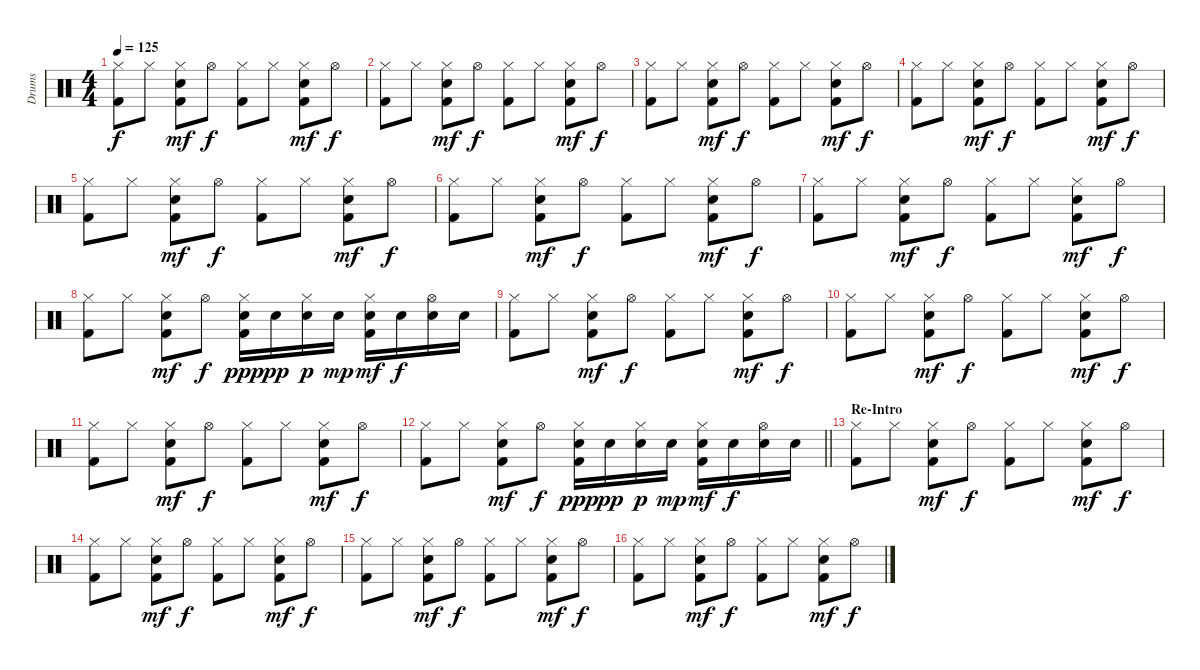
\track ("Drums" "Drums") {instrument percussion}
\staff {score}
\articulation defaults
\ts (4 4)
\tempo 125
\clef neutral
\ks c
("Hi-Hat (closed)" "Kick (hit) 2").8{dy f} "Hi-Hat (closed)".8 ("Hi-Hat (closed)" "Snare (hit) 2" "Kick (hit) 2").8{dy mf} "Hi-Hat (open)".8{dy f} ("Hi-Hat (closed)" "Kick (hit) 2").8 "Hi-Hat (closed)".8 ("Hi-Hat (closed)" "Snare (hit) 2" "Kick (hit) 2").8{dy mf} "Hi-Hat (open)".8{dy f} |
("Hi-Hat (closed)" "Kick (hit) 2").8 "Hi-Hat (closed)".8 ("Hi-Hat (closed)" "Snare (hit) 2" "Kick (hit) 2").8{dy mf} "Hi-Hat (open)".8{dy f} ("Hi-Hat (closed)" "Kick (hit) 2").8 "Hi-Hat (closed)".8 ("Hi-Hat (closed)" "Snare (hit) 2" "Kick (hit) 2").8{dy mf} "Hi-Hat (open)".8{dy f} |
("Hi-Hat (closed)" "Kick (hit) 2").8 "Hi-Hat (closed)".8 ("Hi-Hat (closed)" "Snare (hit) 2" "Kick (hit) 2").8{dy mf} "Hi-Hat (open)".8{dy f} ("Hi-Hat (closed)" "Kick (hit) 2").8 "Hi-Hat (closed)".8 ("Hi-Hat (closed)" "Snare (hit) 2" "Kick (hit) 2").8{dy mf} "Hi-Hat (open)".8{dy f} |
("Hi-Hat (closed)" "Kick (hit) 2").8 "Hi-Hat (closed)".8 ("Hi-Hat (closed)" "Snare (hit) 2" "Kick (hit) 2").8{dy mf} "Hi-Hat (open)".8{dy f} ("Hi-Hat (closed)" "Kick (hit) 2").8 "Hi-Hat (closed)".8 ("Hi-Hat (closed)" "Snare (hit) 2" "Kick (hit) 2").8{dy mf} "Hi-Hat (open)".8{dy f} |
("Hi-Hat (closed)" "Kick (hit) 2").8 "Hi-Hat (closed)".8 ("Hi-Hat (closed)" "Snare (hit) 2" "Kick (hit) 2").8{dy mf} "Hi-Hat (open)".8{dy f} ("Hi-Hat (closed)" "Kick (hit) 2").8 "Hi-Hat (closed)".8 ("Hi-Hat (closed)" "Snare (hit) 2" "Kick (hit) 2").8{dy mf} "Hi-Hat (open)".8{dy f} |
("Hi-Hat (closed)" "Kick (hit) 2").8 "Hi-Hat (closed)".8 ("Hi-Hat (closed)" "Snare (hit) 2" "Kick (hit) 2").8{dy mf} "Hi-Hat (open)".8{dy f} ("Hi-Hat (closed)" "Kick (hit) 2").8 "Hi-Hat (closed)".8 ("Hi-Hat (closed)" "Snare (hit) 2" "Kick (hit) 2").8{dy mf} "Hi-Hat (open)".8{dy f} |
("Hi-Hat (closed)" "Kick (hit) 2").8 "Hi-Hat (closed)".8 ("Hi-Hat (closed)" "Snare (hit) 2" "Kick (hit) 2").8{dy mf} "Hi-Hat (open)".8{dy f} ("Hi-Hat (closed)" "Kick (hit) 2").8 "Hi-Hat (closed)".8 ("Hi-Hat (closed)" "Snare (hit) 2" "Kick (hit) 2").8{dy mf} "Hi-Hat (open)".8{dy f} |
("Hi-Hat (closed)" "Kick (hit) 2").8 "Hi-Hat (closed)".8 ("Hi-Hat (closed)" "Snare (hit) 2" "Kick (hit) 2").8{dy mf} "Hi-Hat (open)".8{dy f} ("Hi-Hat (closed)" "Snare (hit) 2" "Kick (hit) 2").16{dy ppp} "Snare (hit) 2".16{dy pp} ("Hi-Hat (closed)" "Snare (hit) 2").16{dy p} "Snare (hit) 2".16{dy mp} ("Hi-Hat (closed)" "Snare (hit) 2" "Kick (hit) 2").16{dy mf} "Snare (hit) 2".16{dy f} ("Hi-Hat (open)" "Snare (hit) 2").16 "Snare (hit) 2".16 |
("Hi-Hat (closed)" "Kick (hit) 2").8 "Hi-Hat (closed)".8 ("Hi-Hat (closed)" "Snare (hit) 2" "Kick (hit) 2").8{dy mf} "Hi-Hat (open)".8{dy f} ("Hi-Hat (closed)" "Kick (hit) 2").8 "Hi-Hat (closed)".8 ("Hi-Hat (closed)" "Snare (hit) 2" "Kick (hit) 2").8{dy mf} "Hi-Hat (open)".8{dy f} |
("Hi-Hat (closed)" "Kick (hit) 2").8 "Hi-Hat (closed)".8 ("Hi-Hat (closed)" "Snare (hit) 2" "Kick (hit) 2").8{dy mf} "Hi-Hat (open)".8{dy f} ("Hi-Hat (closed)" "Kick (hit) 2").8 "Hi-Hat (closed)".8 ("Hi-Hat (closed)" "Snare (hit) 2" "Kick (hit) 2").8{dy mf} "Hi-Hat (open)".8{dy f} |
("Hi-Hat (closed)" "Kick (hit) 2").8 "Hi-Hat (closed)".8 ("Hi-Hat (closed)" "Snare (hit) 2" "Kick (hit) 2").8{dy mf} "Hi-Hat (open)".8{dy f} ("Hi-Hat (closed)" "Kick (hit) 2").8 "Hi-Hat (closed)".8 ("Hi-Hat (closed)" "Snare (hit) 2" "Kick (hit) 2").8{dy mf} "Hi-Hat (open)".8{dy f} |
\barLineRight lightlight
("Hi-Hat (closed)" "Kick (hit) 2").8 "Hi-Hat (closed)".8 ("Hi-Hat (closed)" "Snare (hit) 2" "Kick (hit) 2").8{dy mf} "Hi-Hat (open)".8{dy f} ("Hi-Hat (closed)" "Snare (hit) 2" "Kick (hit) 2").16{dy ppp} "Snare (hit) 2".16{dy pp} ("Hi-Hat (closed)" "Snare (hit) 2").16{dy p} "Snare (hit) 2".16{dy mp} ("Hi-Hat (closed)" "Snare (hit) 2" "Kick (hit) 2").16{dy mf} "Snare (hit) 2".16{dy f} ("Hi-Hat (open)" "Snare (hit) 2").16 "Snare (hit) 2".16 |
\section ("" "Re-Intro")
("Hi-Hat (closed)" "Kick (hit) 2").8 "Hi-Hat (closed)".8 ("Hi-Hat (closed)" "Snare (hit) 2" "Kick (hit) 2").8{dy mf} "Hi-Hat (open)".8{dy f} ("Hi-Hat (closed)" "Kick (hit) 2").8 "Hi-Hat (closed)".8 ("Hi-Hat (closed)" "Snare (hit) 2" "Kick (hit) 2").8{dy mf} "Hi-Hat (open)".8{dy f} |
("Hi-Hat (closed)" "Kick (hit) 2").8 "Hi-Hat (closed)".8 ("Hi-Hat (closed)" "Snare (hit) 2" "Kick (hit) 2").8{dy mf} "Hi-Hat (open)".8{dy f} ("Hi-Hat (closed)" "Kick (hit) 2").8 "Hi-Hat (closed)".8 ("Hi-Hat (closed)" "Snare (hit) 2" "Kick (hit) 2").8{dy mf} "Hi-Hat (open)".8{dy f} |
("Hi-Hat (closed)" "Kick (hit) 2").8 "Hi-Hat (closed)".8 ("Hi-Hat (closed)" "Snare (hit) 2" "Kick (hit) 2").8{dy mf} "Hi-Hat (open)".8{dy f} ("Hi-Hat (closed)" "Kick (hit) 2").8 "Hi-Hat (closed)".8 ("Hi-Hat (closed)" "Snare (hit) 2" "Kick (hit) 2").8{dy mf} "Hi-Hat (open)".8{dy f} |
("Hi-Hat (closed)" "Kick (hit) 2").8 "Hi-Hat (closed)".8 ("Hi-Hat (closed)" "Snare (hit) 2" "Kick (hit) 2").8{dy mf} "Hi-Hat (open)".8{dy f} ("Hi-Hat (closed)" "Kick (hit) 2").8 "Hi-Hat (closed)".8 ("Hi-Hat (closed)" "Snare (hit) 2" "Kick (hit) 2").8{dy mf} "Hi-Hat (open)".8{dy f}
